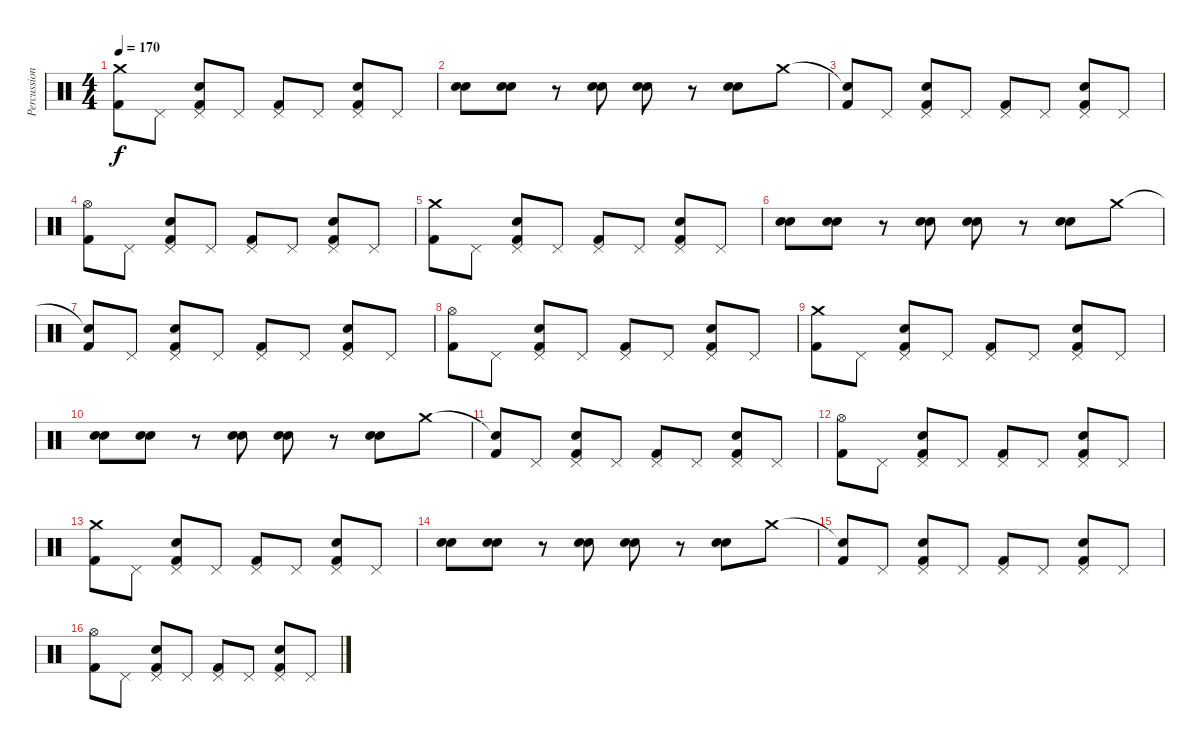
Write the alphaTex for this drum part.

\track ("Percussion" "Percussion") {instrument percussion}
\staff {score}
\articulation defaults
\ts (4 4)
\tempo 170
\clef neutral
\ks c
("Crash medium (hit)" "Kick (hit) 2").8{dy f} "Pedal Hi-Hat (hit)".8 ("Pedal Hi-Hat (hit)" "Electric Snare (hit)" "Kick (hit) 2").8 "Pedal Hi-Hat (hit)".8 ("Pedal Hi-Hat (hit)" "Kick (hit) 2").8 "Pedal Hi-Hat (hit)".8 ("Pedal Hi-Hat (hit)" "Electric Snare (hit)" "Kick (hit) 2").8 "Pedal Hi-Hat (hit)".8 |
("Electric Snare (hit)" "Electric Snare (hit)").8 ("Electric Snare (hit)" "Electric Snare (hit)").8 r.8 ("Electric Snare (hit)" "Electric Snare (hit)").8 ("Electric Snare (hit)" "Electric Snare (hit)").8 r.8 ("Electric Snare (hit)" "Electric Snare (hit)").8 "Crash medium (hit)".8 |
("Snare (hit)"{t} "Kick (hit) 2").8 "Pedal Hi-Hat (hit)".8 ("Pedal Hi-Hat (hit)" "Electric Snare (hit)" "Kick (hit) 2").8 "Pedal Hi-Hat (hit)".8 ("Pedal Hi-Hat (hit)" "Kick (hit) 2").8 "Pedal Hi-Hat (hit)".8 ("Pedal Hi-Hat (hit)" "Electric Snare (hit)" "Kick (hit) 2").8 "Pedal Hi-Hat (hit)".8 |
("Hi-Hat (open)" "Kick (hit) 2").8 "Pedal Hi-Hat (hit)".8 ("Pedal Hi-Hat (hit)" "Electric Snare (hit)" "Kick (hit) 2").8 "Pedal Hi-Hat (hit)".8 ("Pedal Hi-Hat (hit)" "Kick (hit) 2").8 "Pedal Hi-Hat (hit)".8 ("Pedal Hi-Hat (hit)" "Electric Snare (hit)" "Kick (hit) 2").8 "Pedal Hi-Hat (hit)".8 |
("Crash medium (hit)" "Kick (hit) 2").8 "Pedal Hi-Hat (hit)".8 ("Pedal Hi-Hat (hit)" "Electric Snare (hit)" "Kick (hit) 2").8 "Pedal Hi-Hat (hit)".8 ("Pedal Hi-Hat (hit)" "Kick (hit) 2").8 "Pedal Hi-Hat (hit)".8 ("Pedal Hi-Hat (hit)" "Electric Snare (hit)" "Kick (hit) 2").8 "Pedal Hi-Hat (hit)".8 |
("Electric Snare (hit)" "Electric Snare (hit)").8 ("Electric Snare (hit)" "Electric Snare (hit)").8 r.8 ("Electric Snare (hit)" "Electric Snare (hit)").8 ("Electric Snare (hit)" "Electric Snare (hit)").8 r.8 ("Electric Snare (hit)" "Electric Snare (hit)").8 "Crash medium (hit)".8 |
("Snare (hit)"{t} "Kick (hit) 2").8 "Pedal Hi-Hat (hit)".8 ("Pedal Hi-Hat (hit)" "Electric Snare (hit)" "Kick (hit) 2").8 "Pedal Hi-Hat (hit)".8 ("Pedal Hi-Hat (hit)" "Kick (hit) 2").8 "Pedal Hi-Hat (hit)".8 ("Pedal Hi-Hat (hit)" "Electric Snare (hit)" "Kick (hit) 2").8 "Pedal Hi-Hat (hit)".8 |
("Hi-Hat (open)" "Kick (hit) 2").8 "Pedal Hi-Hat (hit)".8 ("Pedal Hi-Hat (hit)" "Electric Snare (hit)" "Kick (hit) 2").8 "Pedal Hi-Hat (hit)".8 ("Pedal Hi-Hat (hit)" "Kick (hit) 2").8 "Pedal Hi-Hat (hit)".8 ("Pedal Hi-Hat (hit)" "Electric Snare (hit)" "Kick (hit) 2").8 "Pedal Hi-Hat (hit)".8 |
("Crash medium (hit)" "Kick (hit) 2").8 "Pedal Hi-Hat (hit)".8 ("Pedal Hi-Hat (hit)" "Electric Snare (hit)" "Kick (hit) 2").8 "Pedal Hi-Hat (hit)".8 ("Pedal Hi-Hat (hit)" "Kick (hit) 2").8 "Pedal Hi-Hat (hit)".8 ("Pedal Hi-Hat (hit)" "Electric Snare (hit)" "Kick (hit) 2").8 "Pedal Hi-Hat (hit)".8 |
("Electric Snare (hit)" "Electric Snare (hit)").8 ("Electric Snare (hit)" "Electric Snare (hit)").8 r.8 ("Electric Snare (hit)" "Electric Snare (hit)").8 ("Electric Snare (hit)" "Electric Snare (hit)").8 r.8 ("Electric Snare (hit)" "Electric Snare (hit)").8 "Crash medium (hit)".8 |
("Snare (hit)"{t} "Kick (hit) 2").8 "Pedal Hi-Hat (hit)".8 ("Pedal Hi-Hat (hit)" "Electric Snare (hit)" "Kick (hit) 2").8 "Pedal Hi-Hat (hit)".8 ("Pedal Hi-Hat (hit)" "Kick (hit) 2").8 "Pedal Hi-Hat (hit)".8 ("Pedal Hi-Hat (hit)" "Electric Snare (hit)" "Kick (hit) 2").8 "Pedal Hi-Hat (hit)".8 |
("Hi-Hat (open)" "Kick (hit) 2").8 "Pedal Hi-Hat (hit)".8 ("Pedal Hi-Hat (hit)" "Electric Snare (hit)" "Kick (hit) 2").8 "Pedal Hi-Hat (hit)".8 ("Pedal Hi-Hat (hit)" "Kick (hit) 2").8 "Pedal Hi-Hat (hit)".8 ("Pedal Hi-Hat (hit)" "Electric Snare (hit)" "Kick (hit) 2").8 "Pedal Hi-Hat (hit)".8 |
("Crash medium (hit)" "Kick (hit) 2").8 "Pedal Hi-Hat (hit)".8 ("Pedal Hi-Hat (hit)" "Electric Snare (hit)" "Kick (hit) 2").8 "Pedal Hi-Hat (hit)".8 ("Pedal Hi-Hat (hit)" "Kick (hit) 2").8 "Pedal Hi-Hat (hit)".8 ("Pedal Hi-Hat (hit)" "Electric Snare (hit)" "Kick (hit) 2").8 "Pedal Hi-Hat (hit)".8 |
("Electric Snare (hit)" "Electric Snare (hit)").8 ("Electric Snare (hit)" "Electric Snare (hit)").8 r.8 ("Electric Snare (hit)" "Electric Snare (hit)").8 ("Electric Snare (hit)" "Electric Snare (hit)").8 r.8 ("Electric Snare (hit)" "Electric Snare (hit)").8 "Crash medium (hit)".8 |
("Snare (hit)"{t} "Kick (hit) 2").8 "Pedal Hi-Hat (hit)".8 ("Pedal Hi-Hat (hit)" "Electric Snare (hit)" "Kick (hit) 2").8 "Pedal Hi-Hat (hit)".8 ("Pedal Hi-Hat (hit)" "Kick (hit) 2").8 "Pedal Hi-Hat (hit)".8 ("Pedal Hi-Hat (hit)" "Electric Snare (hit)" "Kick (hit) 2").8 "Pedal Hi-Hat (hit)".8 |
("Hi-Hat (open)" "Kick (hit) 2").8 "Pedal Hi-Hat (hit)".8 ("Pedal Hi-Hat (hit)" "Electric Snare (hit)" "Kick (hit) 2").8 "Pedal Hi-Hat (hit)".8 ("Pedal Hi-Hat (hit)" "Kick (hit) 2").8 "Pedal Hi-Hat (hit)".8 ("Pedal Hi-Hat (hit)" "Electric Snare (hit)" "Kick (hit) 2").8 "Pedal Hi-Hat (hit)".8
